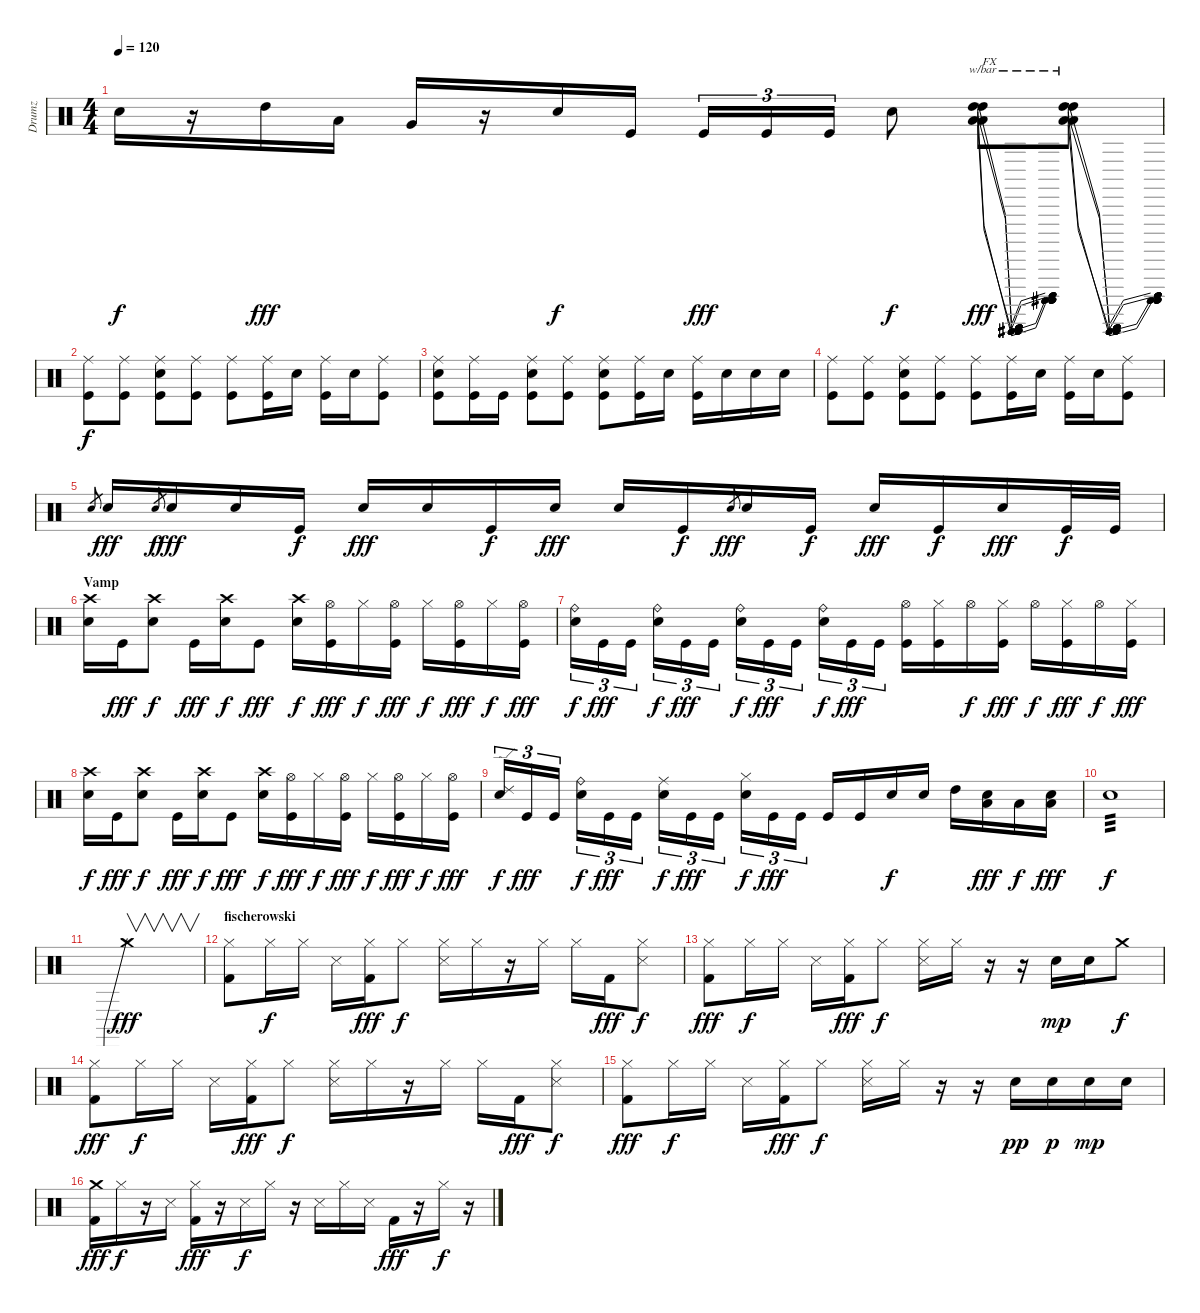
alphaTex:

\track ("Drumz" "Drumz") {instrument percussion}
\staff {score}
\articulation defaults
\ts (4 4)
\tempo 120
\clef neutral
\ks c "Electric Snare (hit)".16{dy f}
r.16 "High Tom (hit)".16{dy fff} "Low Tom (hit)".16 "Very Low Tom (hit)".16 r.16 "Electric Snare (hit)".16{dy f} "Kick (hit)".16 "Kick (hit)".16{tu (3 2) dy fff} "Kick (hit)".16{tu (3 2)} "Kick (hit)".16{tu (3 2)} "Electric Snare (hit)".8{dy f} ("Low Tom (hit)" "High Tom (hit)" "High Tom (hit)" "Low Tom (hit)").8{tbe (dip default 0 0 30 -24 60 0) txt "FX" dy fff} ("Low Tom (hit)" "High Tom (hit)" "High Tom (hit)" "Low Tom (hit)").8{tbe (dip default 0 0 30 -24 60 0)} |
("Ride (middle)" "Kick (hit)").8{dy f} ("Ride (middle)" "Kick (hit)").8 ("Ride (middle)" "Electric Snare (hit)" "Kick (hit)").8 ("Ride (middle)" "Kick (hit)").8 ("Ride (middle)" "Kick (hit)").8 ("Ride (middle)" "Kick (hit)").16 "Electric Snare (hit)".16 ("Ride (middle)" "Kick (hit)").16 "Electric Snare (hit)".16 ("Ride (middle)" "Kick (hit)").8 |
("Ride (middle)" "Electric Snare (hit)" "Kick (hit)").8 ("Ride (middle)" "Kick (hit)").16 "Kick (hit)".16 ("Ride (middle)" "Electric Snare (hit)" "Kick (hit)").8 ("Ride (middle)" "Kick (hit)").8 ("Ride (middle)" "Electric Snare (hit)" "Kick (hit)").8 ("Ride (middle)" "Kick (hit)").16 "Electric Snare (hit)".16 ("Ride (middle)" "Kick (hit)").16 "Electric Snare (hit)".16 "Electric Snare (hit)".16 "Electric Snare (hit)".16 |
("Ride (middle)" "Kick (hit)").8 ("Ride (middle)" "Kick (hit)").8 ("Ride (middle)" "Electric Snare (hit)" "Kick (hit)").8 ("Ride (middle)" "Kick (hit)").8 ("Ride (middle)" "Kick (hit)").8 ("Ride (middle)" "Kick (hit)").16 "Electric Snare (hit)".16 ("Ride (middle)" "Kick (hit)").16 "Electric Snare (hit)".16 ("Ride (middle)" "Kick (hit)").8 |
"Electric Snare (hit)".8{gr} "Electric Snare (hit)".16{dy fff} "Electric Snare (hit)".8{gr dy f} "Electric Snare (hit)".16{dy fff} "Electric Snare (hit)".16 "Kick (hit)".16{dy f} "Electric Snare (hit)".16{dy fff} "Electric Snare (hit)".16 "Kick (hit)".16{dy f} "Electric Snare (hit)".16{dy fff} "Electric Snare (hit)".16 "Kick (hit)".16{dy f} "Electric Snare (hit)".8{gr dy fff} "Electric Snare (hit)".16 "Kick (hit)".16{dy f} "Electric Snare (hit)".16{dy fff} "Kick (hit)".16{dy f} "Electric Snare (hit)".16{dy fff} "Kick (hit)".32{dy f} "Kick (hit)".32 |
\section ("" "Vamp")
("Crash high (hit)" "Electric Snare (hit)").16 "Kick (hit)".16{dy fff} ("Crash high (hit)" "Electric Snare (hit)").8{dy f} "Kick (hit)".16{dy fff} ("Crash high (hit)" "Electric Snare (hit)").16{dy f} "Kick (hit)".8{dy fff} ("Crash high (hit)" "Electric Snare (hit)").16{dy f} ("Hi-Hat (open)" "Kick (hit)").16{dy fff} "Hi-Hat (closed)".16{dy f} ("Hi-Hat (open)" "Kick (hit)").16{dy fff} "Hi-Hat (closed)".16{dy f} ("Hi-Hat (open)" "Kick (hit)").16{dy fff} "Hi-Hat (closed)".16{dy f} ("Hi-Hat (open)" "Kick (hit)").16{dy fff} |
("Ride (bell)" "Electric Snare (hit)").16{tu (3 2) dy f} "Kick (hit)".16{tu (3 2) dy fff} "Kick (hit)".16{tu (3 2)} ("Ride (bell)" "Electric Snare (hit)").16{tu (3 2) dy f} "Kick (hit)".16{tu (3 2) dy fff} "Kick (hit)".16{tu (3 2)} ("Ride (bell)" "Electric Snare (hit)").16{tu (3 2) dy f} "Kick (hit)".16{tu (3 2) dy fff} "Kick (hit)".16{tu (3 2)} ("Ride (bell)" "Electric Snare (hit)").16{tu (3 2) dy f} "Kick (hit)".16{tu (3 2) dy fff} "Kick (hit)".16{tu (3 2)} ("Hi-Hat (open)" "Kick (hit)").16 ("Hi-Hat (closed)" "Kick (hit)").16 "Hi-Hat (open)".16{dy f} ("Hi-Hat (closed)" "Kick (hit)").16{dy fff} "Hi-Hat (open)".16{dy f} ("Hi-Hat (closed)" "Kick (hit)").16{dy fff} "Hi-Hat (open)".16{dy f} ("Hi-Hat (closed)" "Kick (hit)").16{dy fff} |
("Crash high (hit)" "Electric Snare (hit)").16{dy f} "Kick (hit)".16{dy fff} ("Crash high (hit)" "Electric Snare (hit)").8{dy f} "Kick (hit)".16{dy fff} ("Crash high (hit)" "Electric Snare (hit)").16{dy f} "Kick (hit)".8{dy fff} ("Crash high (hit)" "Electric Snare (hit)").16{dy f} ("Hi-Hat (open)" "Kick (hit)").16{dy fff} "Hi-Hat (closed)".16{dy f} ("Hi-Hat (open)" "Kick (hit)").16{dy fff} "Hi-Hat (closed)".16{dy f} ("Hi-Hat (open)" "Kick (hit)").16{dy fff} "Hi-Hat (closed)".16{dy f} ("Hi-Hat (open)" "Kick (hit)").16{dy fff} |
("Ride (edge) 2" "Electric Snare (hit)").16{tu (3 2) dy f} "Kick (hit)".16{tu (3 2) dy fff} "Kick (hit)".16{tu (3 2)} ("Ride (bell)" "Electric Snare (hit)").16{tu (3 2) dy f} "Kick (hit)".16{tu (3 2) dy fff} "Kick (hit)".16{tu (3 2)} ("Ride (middle)" "Electric Snare (hit)").16{tu (3 2) dy f} "Kick (hit)".16{tu (3 2) dy fff} "Kick (hit)".16{tu (3 2)} ("Hi-Hat (closed)" "Electric Snare (hit)").16{tu (3 2) dy f} "Kick (hit)".16{tu (3 2) dy fff} "Kick (hit)".16{tu (3 2)} "Kick (hit)".16 "Kick (hit)".16 "Electric Snare (hit)".16{dy f} "Electric Snare (hit)".16 "High Tom (hit)".16 ("Low Tom (hit)" "Electric Snare (hit)").16{dy fff} "Low Tom (hit)".16{dy f} ("Low Tom (hit)" "Electric Snare (hit)").16{dy fff} |
"Electric Snare (hit)".1{tp 3 dy f} |
"Crash medium (hit)"{be (prebend 0 12 60 12)}.1{v dy fff} |
\section ("" "fischerowski")
("Hi-Hat (closed)" "Kick (hit) 2").8 "Hi-Hat (closed)".16{dy f} "Hi-Hat (closed)".16 "Snare (side stick) 3".16 ("Hi-Hat (closed)" "Kick (hit) 2").16{dy fff} "Hi-Hat (closed)".8{dy f} ("Hi-Hat (closed)" "Snare (side stick) 3").16 "Hi-Hat (closed)".16 r.16 "Hi-Hat (closed)".16 "Hi-Hat (closed)".16 "Kick (hit) 2".16{dy fff} ("Hi-Hat (closed)" "Snare (side stick) 3").8{dy f} |
("Hi-Hat (closed)" "Kick (hit) 2").8{dy fff} "Hi-Hat (closed)".16{dy f} "Hi-Hat (closed)".16 "Snare (side stick) 3".16 ("Hi-Hat (closed)" "Kick (hit) 2").16{dy fff} "Hi-Hat (closed)".8{dy f} ("Hi-Hat (closed)" "Snare (side stick) 3").16 "Hi-Hat (closed)".16 r.16 r.16 "Snare (hit) 2".16{dy mp} "Snare (hit) 2".16 "Crash medium (hit)".8{dy f} |
("Hi-Hat (closed)" "Kick (hit) 2").8{dy fff} "Hi-Hat (closed)".16{dy f} "Hi-Hat (closed)".16 "Snare (side stick) 3".16 ("Hi-Hat (closed)" "Kick (hit) 2").16{dy fff} "Hi-Hat (closed)".8{dy f} ("Hi-Hat (closed)" "Snare (side stick) 3").16 "Hi-Hat (closed)".16 r.16 "Hi-Hat (closed)".16 "Hi-Hat (closed)".16 "Kick (hit) 2".16{dy fff} ("Hi-Hat (closed)" "Snare (side stick) 3").8{dy f} |
("Hi-Hat (closed)" "Kick (hit) 2").8{dy fff} "Hi-Hat (closed)".16{dy f} "Hi-Hat (closed)".16 "Snare (side stick) 3".16 ("Hi-Hat (closed)" "Kick (hit) 2").16{dy fff} "Hi-Hat (closed)".8{dy f} ("Hi-Hat (closed)" "Snare (side stick) 3").16 "Hi-Hat (closed)".16 r.16 r.16 "Snare (hit) 2".16{dy pp} "Snare (hit) 2".16{dy p} "Snare (hit) 2".16{dy mp} "Snare (hit) 2".16 |
("Crash medium (hit)" "Kick (hit) 2").16{dy fff} "Hi-Hat (closed)".16{dy f} r.16 "Snare (side stick) 3".16 ("Hi-Hat (closed)" "Kick (hit) 2").16{dy fff} r.16 "Snare (side stick) 3".16{dy f} "Hi-Hat (closed)".16 r.16 "Snare (side stick) 3".16 "Hi-Hat (closed)".16 "Snare (side stick) 3".16 "Kick (hit) 2".16{dy fff} r.16 "Hi-Hat (closed)".16{dy f} r.16
